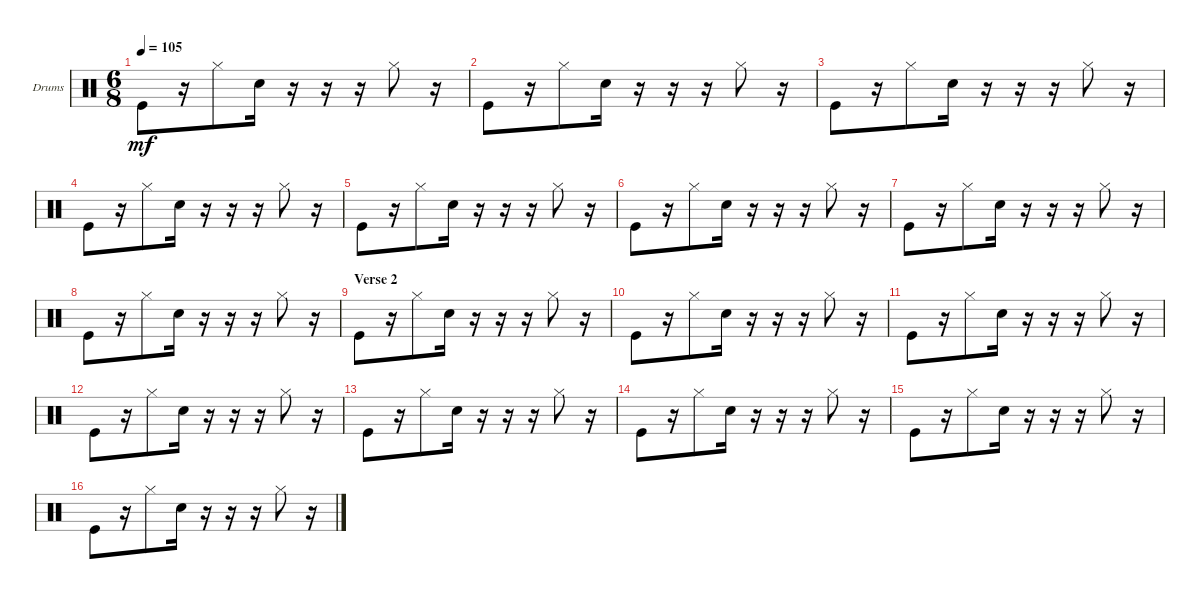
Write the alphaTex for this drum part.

\defaultSystemsLayout 4
\bracketExtendMode nobrackets
\firstSystemTrackNameOrientation horizontal
\otherSystemsTrackNameOrientation horizontal
\track ("Drumkit" "Drums") {instrument percussion}
\staff {score}
\articulation defaults
\ts (6 8)
\tempo 105
\clef neutral
\ks c "Kick (hit)".8{dy mf}
r.16 "Hi-Hat (closed)".8 "Snare (hit) 2".16 r.16 r.16 r.16 "Hi-Hat (closed)".8 r.16 |
"Kick (hit)".8 r.16 "Hi-Hat (closed)".8 "Snare (hit) 2".16 r.16 r.16 r.16 "Hi-Hat (closed)".8 r.16 |
"Kick (hit)".8 r.16 "Hi-Hat (closed)".8 "Snare (hit) 2".16 r.16 r.16 r.16 "Hi-Hat (closed)".8 r.16 |
"Kick (hit)".8 r.16 "Hi-Hat (closed)".8 "Snare (hit) 2".16 r.16 r.16 r.16 "Hi-Hat (closed)".8 r.16 |
"Kick (hit)".8 r.16 "Hi-Hat (closed)".8 "Snare (hit) 2".16 r.16 r.16 r.16 "Hi-Hat (closed)".8 r.16 |
"Kick (hit)".8 r.16 "Hi-Hat (closed)".8 "Snare (hit) 2".16 r.16 r.16 r.16 "Hi-Hat (closed)".8 r.16 |
"Kick (hit)".8 r.16 "Hi-Hat (closed)".8 "Snare (hit) 2".16 r.16 r.16 r.16 "Hi-Hat (closed)".8 r.16 |
"Kick (hit)".8 r.16 "Hi-Hat (closed)".8 "Snare (hit) 2".16 r.16 r.16 r.16 "Hi-Hat (closed)".8 r.16 |
\section ("" "Verse 2")
"Kick (hit)".8 r.16 "Hi-Hat (closed)".8 "Snare (hit) 2".16 r.16 r.16 r.16 "Hi-Hat (closed)".8 r.16 |
"Kick (hit)".8 r.16 "Hi-Hat (closed)".8 "Snare (hit) 2".16 r.16 r.16 r.16 "Hi-Hat (closed)".8 r.16 |
"Kick (hit)".8 r.16 "Hi-Hat (closed)".8 "Snare (hit) 2".16 r.16 r.16 r.16 "Hi-Hat (closed)".8 r.16 |
"Kick (hit)".8 r.16 "Hi-Hat (closed)".8 "Snare (hit) 2".16 r.16 r.16 r.16 "Hi-Hat (closed)".8 r.16 |
"Kick (hit)".8 r.16 "Hi-Hat (closed)".8 "Snare (hit) 2".16 r.16 r.16 r.16 "Hi-Hat (closed)".8 r.16 |
"Kick (hit)".8 r.16 "Hi-Hat (closed)".8 "Snare (hit) 2".16 r.16 r.16 r.16 "Hi-Hat (closed)".8 r.16 |
"Kick (hit)".8 r.16 "Hi-Hat (closed)".8 "Snare (hit) 2".16 r.16 r.16 r.16 "Hi-Hat (closed)".8 r.16 |
"Kick (hit)".8 r.16 "Hi-Hat (closed)".8 "Snare (hit) 2".16 r.16 r.16 r.16 "Hi-Hat (closed)".8 r.16
